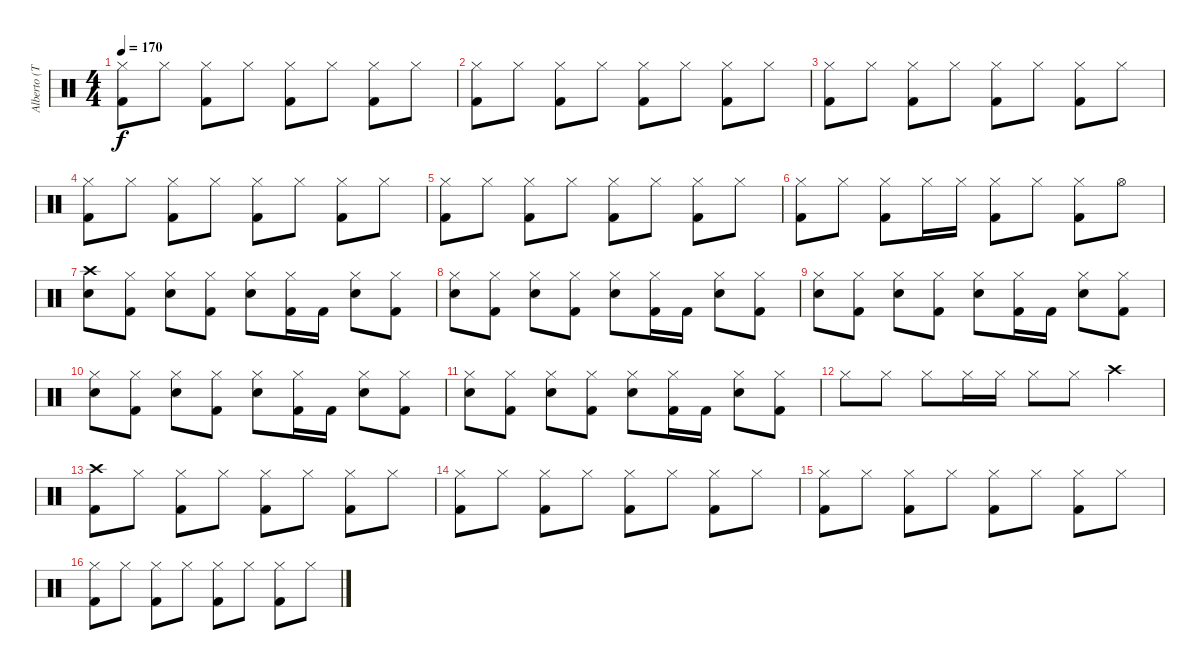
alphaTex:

\track ("Alberto (Toshi)" "Alberto (T") {instrument percussion}
\staff {score}
\articulation defaults
\ts (4 4)
\tempo 170
\clef neutral
\ks c
("Hi-Hat (closed)" "Kick (hit) 2").8{dy f} "Hi-Hat (closed)".8 ("Hi-Hat (closed)" "Kick (hit) 2").8 "Hi-Hat (closed)".8 ("Hi-Hat (closed)" "Kick (hit) 2").8 "Hi-Hat (closed)".8 ("Hi-Hat (closed)" "Kick (hit) 2").8 "Hi-Hat (closed)".8 |
("Hi-Hat (closed)" "Kick (hit) 2").8 "Hi-Hat (closed)".8 ("Hi-Hat (closed)" "Kick (hit) 2").8 "Hi-Hat (closed)".8 ("Hi-Hat (closed)" "Kick (hit) 2").8 "Hi-Hat (closed)".8 ("Hi-Hat (closed)" "Kick (hit) 2").8 "Hi-Hat (closed)".8 |
("Hi-Hat (closed)" "Kick (hit) 2").8 "Hi-Hat (closed)".8 ("Hi-Hat (closed)" "Kick (hit) 2").8 "Hi-Hat (closed)".8 ("Hi-Hat (closed)" "Kick (hit) 2").8 "Hi-Hat (closed)".8 ("Hi-Hat (closed)" "Kick (hit) 2").8 "Hi-Hat (closed)".8 |
("Hi-Hat (closed)" "Kick (hit) 2").8 "Hi-Hat (closed)".8 ("Hi-Hat (closed)" "Kick (hit) 2").8 "Hi-Hat (closed)".8 ("Hi-Hat (closed)" "Kick (hit) 2").8 "Hi-Hat (closed)".8 ("Hi-Hat (closed)" "Kick (hit) 2").8 "Hi-Hat (closed)".8 |
("Hi-Hat (closed)" "Kick (hit) 2").8 "Hi-Hat (closed)".8 ("Hi-Hat (closed)" "Kick (hit) 2").8 "Hi-Hat (closed)".8 ("Hi-Hat (closed)" "Kick (hit) 2").8 "Hi-Hat (closed)".8 ("Hi-Hat (closed)" "Kick (hit) 2").8 "Hi-Hat (closed)".8 |
("Hi-Hat (closed)" "Kick (hit) 2").8 "Hi-Hat (closed)".8 ("Hi-Hat (closed)" "Kick (hit) 2").8 "Hi-Hat (closed)".16 "Hi-Hat (closed)".16 ("Hi-Hat (closed)" "Kick (hit) 2").8 "Hi-Hat (closed)".8 ("Hi-Hat (closed)" "Kick (hit) 2").8 "Hi-Hat (open)".8 |
("Crash high (hit)" "Snare (hit) 2").8 ("Hi-Hat (closed)" "Kick (hit) 2").8 ("Hi-Hat (closed)" "Snare (hit) 2").8 ("Hi-Hat (closed)" "Kick (hit) 2").8 ("Hi-Hat (closed)" "Snare (hit) 2").8 ("Hi-Hat (closed)" "Kick (hit) 2").16 "Kick (hit) 2".16 ("Hi-Hat (closed)" "Snare (hit) 2").8 ("Hi-Hat (closed)" "Kick (hit) 2").8 |
("Hi-Hat (closed)" "Snare (hit) 2").8 ("Hi-Hat (closed)" "Kick (hit) 2").8 ("Hi-Hat (closed)" "Snare (hit) 2").8 ("Hi-Hat (closed)" "Kick (hit) 2").8 ("Hi-Hat (closed)" "Snare (hit) 2").8 ("Hi-Hat (closed)" "Kick (hit) 2").16 "Kick (hit) 2".16 ("Hi-Hat (closed)" "Snare (hit) 2").8 ("Hi-Hat (closed)" "Kick (hit) 2").8 |
("Hi-Hat (closed)" "Snare (hit) 2").8 ("Hi-Hat (closed)" "Kick (hit) 2").8 ("Hi-Hat (closed)" "Snare (hit) 2").8 ("Hi-Hat (closed)" "Kick (hit) 2").8 ("Hi-Hat (closed)" "Snare (hit) 2").8 ("Hi-Hat (closed)" "Kick (hit) 2").16 "Kick (hit) 2".16 ("Hi-Hat (closed)" "Snare (hit) 2").8 ("Hi-Hat (closed)" "Kick (hit) 2").8 |
("Hi-Hat (closed)" "Snare (hit) 2").8 ("Hi-Hat (closed)" "Kick (hit) 2").8 ("Hi-Hat (closed)" "Snare (hit) 2").8 ("Hi-Hat (closed)" "Kick (hit) 2").8 ("Hi-Hat (closed)" "Snare (hit) 2").8 ("Hi-Hat (closed)" "Kick (hit) 2").16 "Kick (hit) 2".16 ("Hi-Hat (closed)" "Snare (hit) 2").8 ("Hi-Hat (closed)" "Kick (hit) 2").8 |
("Hi-Hat (closed)" "Snare (hit) 2").8 ("Hi-Hat (closed)" "Kick (hit) 2").8 ("Hi-Hat (closed)" "Snare (hit) 2").8 ("Hi-Hat (closed)" "Kick (hit) 2").8 ("Hi-Hat (closed)" "Snare (hit) 2").8 ("Hi-Hat (closed)" "Kick (hit) 2").16 "Kick (hit) 2".16 ("Hi-Hat (closed)" "Snare (hit) 2").8 ("Hi-Hat (closed)" "Kick (hit) 2").8 |
"Hi-Hat (closed)".8 "Hi-Hat (closed)".8 "Hi-Hat (closed)".8 "Hi-Hat (closed)".16 "Hi-Hat (closed)".16 "Hi-Hat (closed)".8 "Hi-Hat (closed)".8 "Crash high (hit)".4 |
("Crash high (hit)" "Kick (hit) 2").8 "Hi-Hat (closed)".8 ("Hi-Hat (closed)" "Kick (hit) 2").8 "Hi-Hat (closed)".8 ("Hi-Hat (closed)" "Kick (hit) 2").8 "Hi-Hat (closed)".8 ("Hi-Hat (closed)" "Kick (hit) 2").8 "Hi-Hat (closed)".8 |
("Hi-Hat (closed)" "Kick (hit) 2").8 "Hi-Hat (closed)".8 ("Hi-Hat (closed)" "Kick (hit) 2").8 "Hi-Hat (closed)".8 ("Hi-Hat (closed)" "Kick (hit) 2").8 "Hi-Hat (closed)".8 ("Hi-Hat (closed)" "Kick (hit) 2").8 "Hi-Hat (closed)".8 |
("Hi-Hat (closed)" "Kick (hit) 2").8 "Hi-Hat (closed)".8 ("Hi-Hat (closed)" "Kick (hit) 2").8 "Hi-Hat (closed)".8 ("Hi-Hat (closed)" "Kick (hit) 2").8 "Hi-Hat (closed)".8 ("Hi-Hat (closed)" "Kick (hit) 2").8 "Hi-Hat (closed)".8 |
("Hi-Hat (closed)" "Kick (hit) 2").8 "Hi-Hat (closed)".8 ("Hi-Hat (closed)" "Kick (hit) 2").8 "Hi-Hat (closed)".8 ("Hi-Hat (closed)" "Kick (hit) 2").8 "Hi-Hat (closed)".8 ("Hi-Hat (closed)" "Kick (hit) 2").8 "Hi-Hat (closed)".8
